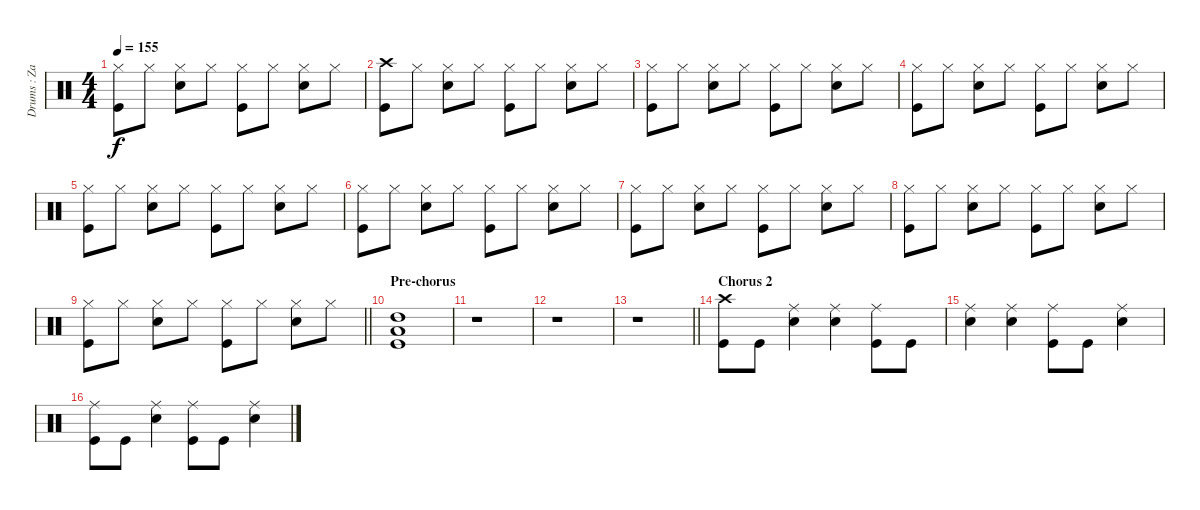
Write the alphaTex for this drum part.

\track ("Drums : Zach Lind" "Drums : Za") {instrument percussion}
\staff {score}
\articulation defaults
\ts (4 4)
\tempo 155
\clef neutral
\ks c
("Hi-Hat (closed)" "Kick (hit)").8{dy f} "Hi-Hat (closed)".8 ("Hi-Hat (closed)" "Snare (hit) 2").8 "Hi-Hat (closed)".8 ("Hi-Hat (closed)" "Kick (hit)").8 "Hi-Hat (closed)".8 ("Hi-Hat (closed)" "Snare (hit) 2").8 "Hi-Hat (closed)".8 |
("Crash high (hit)" "Kick (hit)").8 "Hi-Hat (closed)".8 ("Hi-Hat (closed)" "Snare (hit) 2").8 "Hi-Hat (closed)".8 ("Hi-Hat (closed)" "Kick (hit)").8 "Hi-Hat (closed)".8 ("Hi-Hat (closed)" "Snare (hit) 2").8 "Hi-Hat (closed)".8 |
("Hi-Hat (closed)" "Kick (hit)").8 "Hi-Hat (closed)".8 ("Hi-Hat (closed)" "Snare (hit) 2").8 "Hi-Hat (closed)".8 ("Hi-Hat (closed)" "Kick (hit)").8 "Hi-Hat (closed)".8 ("Hi-Hat (closed)" "Snare (hit) 2").8 "Hi-Hat (closed)".8 |
("Hi-Hat (closed)" "Kick (hit)").8 "Hi-Hat (closed)".8 ("Hi-Hat (closed)" "Snare (hit) 2").8 "Hi-Hat (closed)".8 ("Hi-Hat (closed)" "Kick (hit)").8 "Hi-Hat (closed)".8 ("Hi-Hat (closed)" "Snare (hit) 2").8 "Hi-Hat (closed)".8 |
("Hi-Hat (closed)" "Kick (hit)").8 "Hi-Hat (closed)".8 ("Hi-Hat (closed)" "Snare (hit) 2").8 "Hi-Hat (closed)".8 ("Hi-Hat (closed)" "Kick (hit)").8 "Hi-Hat (closed)".8 ("Hi-Hat (closed)" "Snare (hit) 2").8 "Hi-Hat (closed)".8 |
("Hi-Hat (closed)" "Kick (hit)").8 "Hi-Hat (closed)".8 ("Hi-Hat (closed)" "Snare (hit) 2").8 "Hi-Hat (closed)".8 ("Hi-Hat (closed)" "Kick (hit)").8 "Hi-Hat (closed)".8 ("Hi-Hat (closed)" "Snare (hit) 2").8 "Hi-Hat (closed)".8 |
("Hi-Hat (closed)" "Kick (hit)").8 "Hi-Hat (closed)".8 ("Hi-Hat (closed)" "Snare (hit) 2").8 "Hi-Hat (closed)".8 ("Hi-Hat (closed)" "Kick (hit)").8 "Hi-Hat (closed)".8 ("Hi-Hat (closed)" "Snare (hit) 2").8 "Hi-Hat (closed)".8 |
("Hi-Hat (closed)" "Kick (hit)").8 "Hi-Hat (closed)".8 ("Hi-Hat (closed)" "Snare (hit) 2").8 "Hi-Hat (closed)".8 ("Hi-Hat (closed)" "Kick (hit)").8 "Hi-Hat (closed)".8 ("Hi-Hat (closed)" "Snare (hit) 2").8 "Hi-Hat (closed)".8 |
\barLineRight lightlight
("Hi-Hat (closed)" "Kick (hit)").8 "Hi-Hat (closed)".8 ("Hi-Hat (closed)" "Snare (hit) 2").8 "Hi-Hat (closed)".8 ("Hi-Hat (closed)" "Kick (hit)").8 "Hi-Hat (closed)".8 ("Hi-Hat (closed)" "Snare (hit) 2").8 "Hi-Hat (closed)".8 |
\section ("" "Pre-chorus")
("High Tom (hit)" "Low Floor Tom (hit)" "Kick (hit)").1 |
r.1 |
r.1 |
\barLineRight lightlight
r.1 |
\section ("" "Chorus 2")
("Crash high (hit)" "Kick (hit)").8 "Kick (hit)".8 ("Ride (middle)" "Snare (hit) 2").4 ("Ride (middle)" "Snare (hit) 2").4 ("Ride (middle)" "Kick (hit)").8 "Kick (hit)".8 |
("Ride (middle)" "Snare (hit) 2").4 ("Ride (middle)" "Snare (hit) 2").4 ("Ride (middle)" "Kick (hit)").8 "Kick (hit)".8 ("Ride (middle)" "Snare (hit) 2").4 |
("Ride (middle)" "Kick (hit)").8 "Kick (hit)".8 ("Ride (middle)" "Snare (hit) 2").4 ("Ride (middle)" "Kick (hit)").8 "Kick (hit)".8 ("Ride (middle)" "Snare (hit) 2").4
